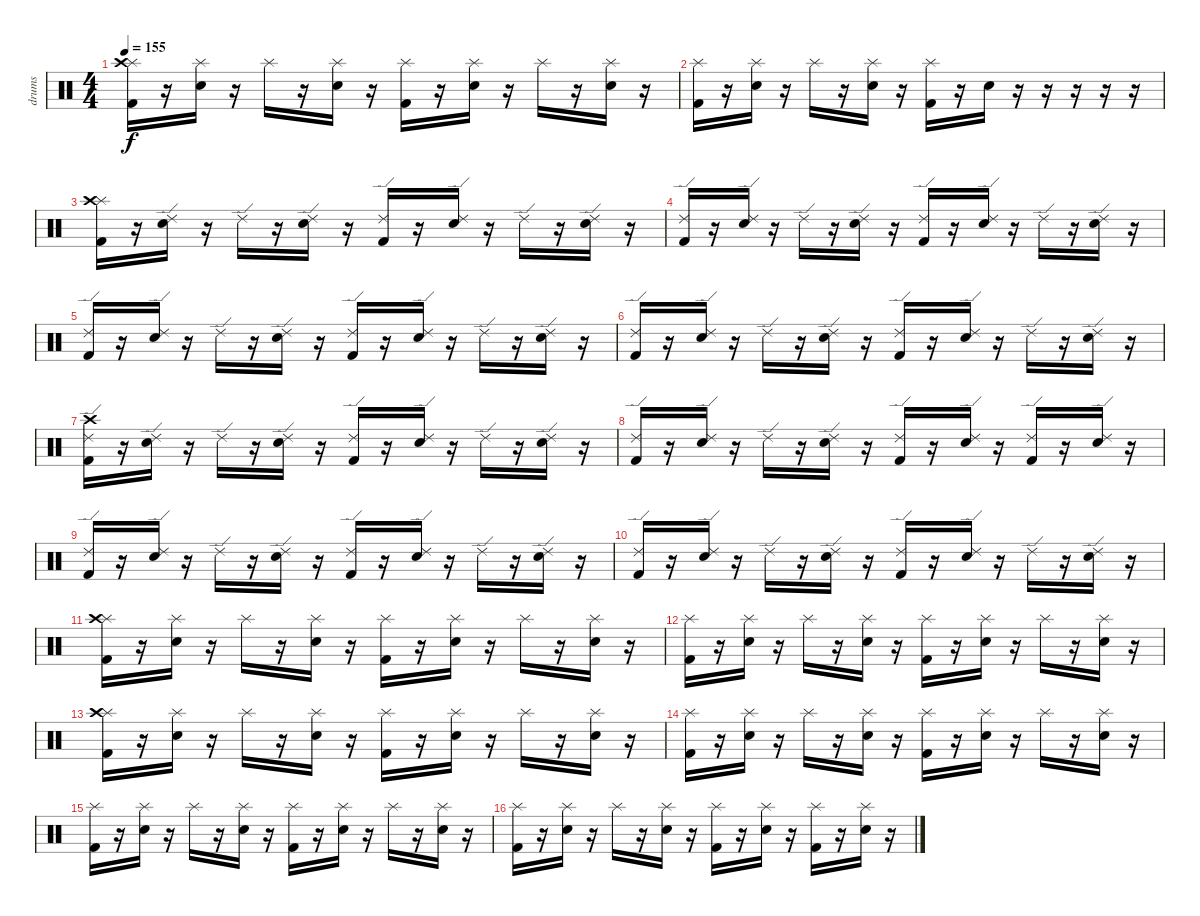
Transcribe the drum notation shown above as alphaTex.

\track ("drums" "drums") {instrument percussion}
\staff {score}
\articulation defaults
\ts (4 4)
\tempo 155
\clef neutral
\ks c
("Splash (hit)" "Crash high (hit)" "Kick (hit) 2").16{dy f} r.16 ("Splash (hit)" "Snare (hit) 2").16 r.16 "Splash (hit)".16 r.16 ("Splash (hit)" "Snare (hit) 2").16 r.16 ("Splash (hit)" "Kick (hit) 2").16 r.16 ("Splash (hit)" "Snare (hit) 2").16 r.16 "Splash (hit)".16 r.16 ("Splash (hit)" "Snare (hit) 2").16 r.16 |
("Splash (hit)" "Kick (hit) 2").16 r.16 ("Splash (hit)" "Snare (hit) 2").16 r.16 "Splash (hit)".16 r.16 ("Splash (hit)" "Snare (hit) 2").16 r.16 ("Splash (hit)" "Kick (hit) 2").16 r.16 "Snare (hit) 2".16 r.16 r.16 r.16 r.16 r.16 |
("Splash (hit)" "Crash high (hit)" "Kick (hit) 2").16 r.16 ("Ride (edge) 2" "Snare (hit) 2").16 r.16 "Ride (edge) 2".16 r.16 ("Ride (edge) 2" "Snare (hit) 2").16 r.16 ("Ride (edge) 2" "Kick (hit) 2").16 r.16 ("Ride (edge) 2" "Snare (hit) 2").16 r.16 "Ride (edge) 2".16 r.16 ("Ride (edge) 2" "Snare (hit) 2").16 r.16 |
("Ride (edge) 2" "Kick (hit) 2").16 r.16 ("Ride (edge) 2" "Snare (hit) 2").16 r.16 "Ride (edge) 2".16 r.16 ("Ride (edge) 2" "Snare (hit) 2").16 r.16 ("Ride (edge) 2" "Kick (hit) 2").16 r.16 ("Ride (edge) 2" "Snare (hit) 2").16 r.16 "Ride (edge) 2".16 r.16 ("Ride (edge) 2" "Snare (hit) 2").16 r.16 |
("Ride (edge) 2" "Kick (hit) 2").16 r.16 ("Ride (edge) 2" "Snare (hit) 2").16 r.16 "Ride (edge) 2".16 r.16 ("Ride (edge) 2" "Snare (hit) 2").16 r.16 ("Ride (edge) 2" "Kick (hit) 2").16 r.16 ("Ride (edge) 2" "Snare (hit) 2").16 r.16 "Ride (edge) 2".16 r.16 ("Ride (edge) 2" "Snare (hit) 2").16 r.16 |
("Ride (edge) 2" "Kick (hit) 2").16 r.16 ("Ride (edge) 2" "Snare (hit) 2").16 r.16 "Ride (edge) 2".16 r.16 ("Ride (edge) 2" "Snare (hit) 2").16 r.16 ("Ride (edge) 2" "Kick (hit) 2").16 r.16 ("Ride (edge) 2" "Snare (hit) 2").16 r.16 "Ride (edge) 2".16 r.16 ("Ride (edge) 2" "Snare (hit) 2").16 r.16 |
("Ride (edge) 2" "Crash high (hit)" "Kick (hit) 2").16 r.16 ("Ride (edge) 2" "Snare (hit) 2").16 r.16 "Ride (edge) 2".16 r.16 ("Ride (edge) 2" "Snare (hit) 2").16 r.16 ("Ride (edge) 2" "Kick (hit) 2").16 r.16 ("Ride (edge) 2" "Snare (hit) 2").16 r.16 "Ride (edge) 2".16 r.16 ("Ride (edge) 2" "Snare (hit) 2").16 r.16 |
("Ride (edge) 2" "Kick (hit) 2").16 r.16 ("Ride (edge) 2" "Snare (hit) 2").16 r.16 "Ride (edge) 2".16 r.16 ("Ride (edge) 2" "Snare (hit) 2").16 r.16 ("Ride (edge) 2" "Kick (hit) 2").16 r.16 ("Ride (edge) 2" "Snare (hit) 2").16 r.16 ("Ride (edge) 2" "Kick (hit) 2").16 r.16 ("Ride (edge) 2" "Snare (hit) 2").16 r.16 |
("Ride (edge) 2" "Kick (hit) 2").16 r.16 ("Ride (edge) 2" "Snare (hit) 2").16 r.16 "Ride (edge) 2".16 r.16 ("Ride (edge) 2" "Snare (hit) 2").16 r.16 ("Ride (edge) 2" "Kick (hit) 2").16 r.16 ("Ride (edge) 2" "Snare (hit) 2").16 r.16 "Ride (edge) 2".16 r.16 ("Ride (edge) 2" "Snare (hit) 2").16 r.16 |
("Ride (edge) 2" "Kick (hit) 2").16 r.16 ("Ride (edge) 2" "Snare (hit) 2").16 r.16 "Ride (edge) 2".16 r.16 ("Ride (edge) 2" "Snare (hit) 2").16 r.16 ("Ride (edge) 2" "Kick (hit) 2").16 r.16 ("Ride (edge) 2" "Snare (hit) 2").16 r.16 "Ride (edge) 2".16 r.16 ("Ride (edge) 2" "Snare (hit) 2").16 r.16 |
("Splash (hit)" "Crash high (hit)" "Kick (hit) 2").16 r.16 ("Splash (hit)" "Snare (hit) 2").16 r.16 "Splash (hit)".16 r.16 ("Splash (hit)" "Snare (hit) 2").16 r.16 ("Splash (hit)" "Kick (hit) 2").16 r.16 ("Splash (hit)" "Snare (hit) 2").16 r.16 "Splash (hit)".16 r.16 ("Splash (hit)" "Snare (hit) 2").16 r.16 |
("Splash (hit)" "Kick (hit) 2").16 r.16 ("Splash (hit)" "Snare (hit) 2").16 r.16 "Splash (hit)".16 r.16 ("Splash (hit)" "Snare (hit) 2").16 r.16 ("Splash (hit)" "Kick (hit) 2").16 r.16 ("Splash (hit)" "Snare (hit) 2").16 r.16 "Splash (hit)".16 r.16 ("Splash (hit)" "Snare (hit) 2").16 r.16 |
("Splash (hit)" "Crash high (hit)" "Kick (hit) 2").16 r.16 ("Splash (hit)" "Snare (hit) 2").16 r.16 "Splash (hit)".16 r.16 ("Splash (hit)" "Snare (hit) 2").16 r.16 ("Splash (hit)" "Kick (hit) 2").16 r.16 ("Splash (hit)" "Snare (hit) 2").16 r.16 "Splash (hit)".16 r.16 ("Splash (hit)" "Snare (hit) 2").16 r.16 |
("Splash (hit)" "Kick (hit) 2").16 r.16 ("Splash (hit)" "Snare (hit) 2").16 r.16 "Splash (hit)".16 r.16 ("Splash (hit)" "Snare (hit) 2").16 r.16 ("Splash (hit)" "Kick (hit) 2").16 r.16 ("Splash (hit)" "Snare (hit) 2").16 r.16 "Splash (hit)".16 r.16 ("Splash (hit)" "Snare (hit) 2").16 r.16 |
("Splash (hit)" "Kick (hit) 2").16 r.16 ("Splash (hit)" "Snare (hit) 2").16 r.16 "Splash (hit)".16 r.16 ("Splash (hit)" "Snare (hit) 2").16 r.16 ("Splash (hit)" "Kick (hit) 2").16 r.16 ("Splash (hit)" "Snare (hit) 2").16 r.16 "Splash (hit)".16 r.16 ("Splash (hit)" "Snare (hit) 2").16 r.16 |
("Splash (hit)" "Kick (hit) 2").16 r.16 ("Splash (hit)" "Snare (hit) 2").16 r.16 "Splash (hit)".16 r.16 ("Splash (hit)" "Snare (hit) 2").16 r.16 ("Splash (hit)" "Kick (hit) 2").16 r.16 ("Splash (hit)" "Snare (hit) 2").16 r.16 ("Splash (hit)" "Kick (hit) 2").16 r.16 ("Splash (hit)" "Snare (hit) 2").16 r.16
